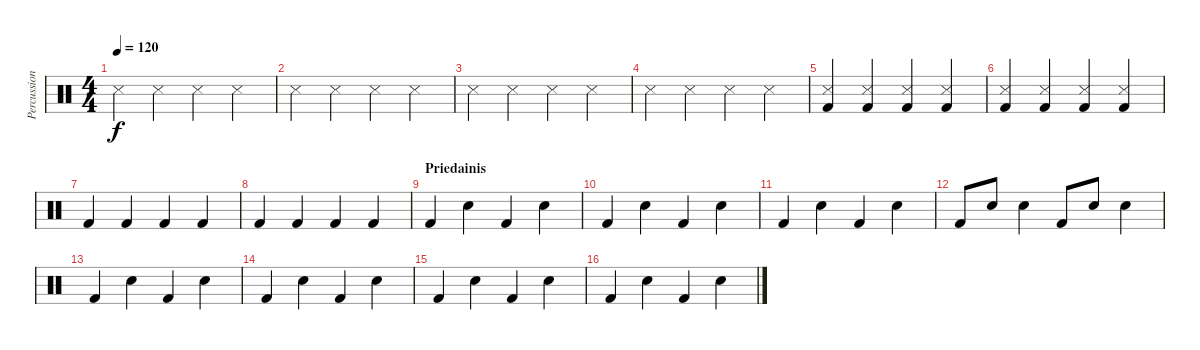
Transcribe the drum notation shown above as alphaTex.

\track ("Percussion" "Percussion") {instrument percussion}
\staff {score}
\articulation defaults
\ts (4 4)
\tempo 120
\clef neutral
\ks c "Snare (side stick) 3".4{dy f} "Snare (side stick) 3".4 "Snare (side stick) 3".4 "Snare (side stick) 3".4
|
"Snare (side stick) 3".4 "Snare (side stick) 3".4 "Snare (side stick) 3".4 "Snare (side stick) 3".4 |
"Snare (side stick) 3".4 "Snare (side stick) 3".4 "Snare (side stick) 3".4 "Snare (side stick) 3".4 |
"Snare (side stick) 3".4 "Snare (side stick) 3".4 "Snare (side stick) 3".4 "Snare (side stick) 3".4 |
("Snare (side stick) 3" "Kick (hit) 2").4 ("Snare (side stick) 3" "Kick (hit) 2").4 ("Snare (side stick) 3" "Kick (hit) 2").4 ("Snare (side stick) 3" "Kick (hit) 2").4 |
("Snare (side stick) 3" "Kick (hit) 2").4 ("Snare (side stick) 3" "Kick (hit) 2").4 ("Snare (side stick) 3" "Kick (hit) 2").4 ("Snare (side stick) 3" "Kick (hit) 2").4 |
"Kick (hit) 2".4 "Kick (hit) 2".4 "Kick (hit) 2".4 "Kick (hit) 2".4 |
"Kick (hit) 2".4 "Kick (hit) 2".4 "Kick (hit) 2".4 "Kick (hit) 2".4 |
\section ("" "Priedainis")
"Kick (hit) 2".4 "Snare (hit) 2".4 "Kick (hit) 2".4 "Snare (hit) 2".4 |
"Kick (hit) 2".4 "Snare (hit) 2".4 "Kick (hit) 2".4 "Snare (hit) 2".4 |
"Kick (hit) 2".4 "Snare (hit) 2".4 "Kick (hit) 2".4 "Snare (hit) 2".4 |
"Kick (hit) 2".8 "Snare (hit) 2".8 "Snare (hit) 2".4 "Kick (hit) 2".8 "Snare (hit) 2".8 "Snare (hit) 2".4 |
"Kick (hit) 2".4 "Snare (hit) 2".4 "Kick (hit) 2".4 "Snare (hit) 2".4 |
"Kick (hit) 2".4 "Snare (hit) 2".4 "Kick (hit) 2".4 "Snare (hit) 2".4 |
"Kick (hit) 2".4 "Snare (hit) 2".4 "Kick (hit) 2".4 "Snare (hit) 2".4 |
"Kick (hit) 2".4 "Snare (hit) 2".4 "Kick (hit) 2".4 "Snare (hit) 2".4
